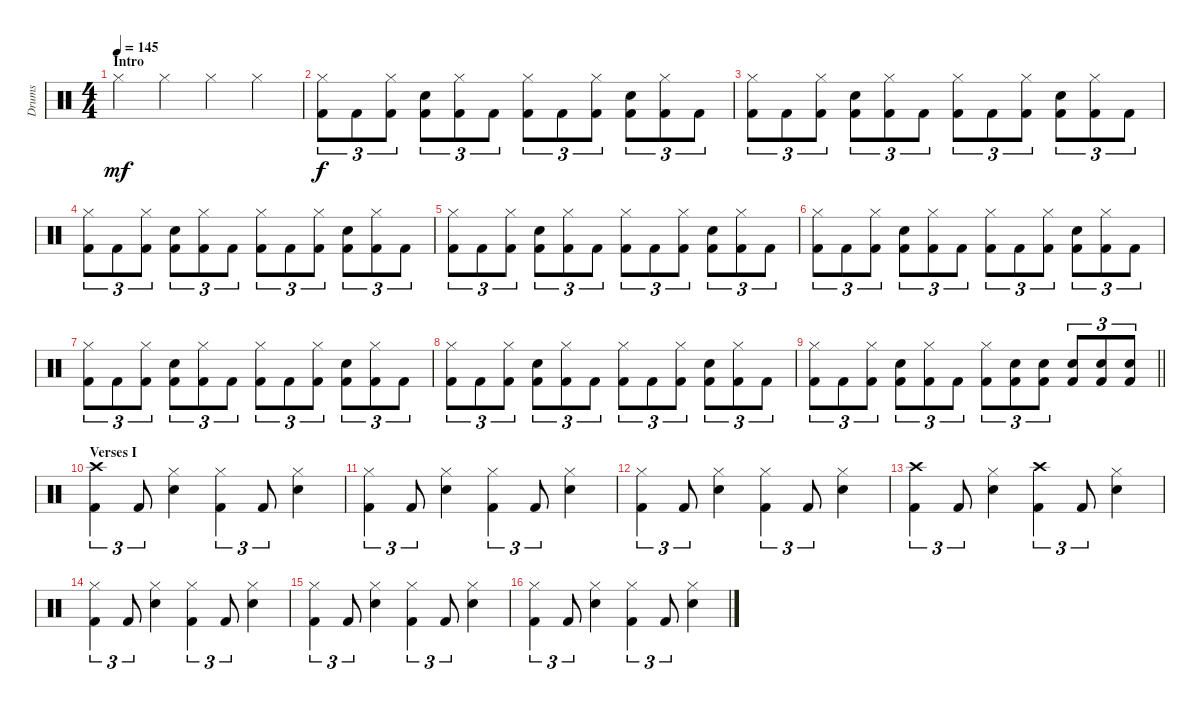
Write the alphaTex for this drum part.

\track ("Drums" "Drums") {instrument percussion}
\staff {score}
\articulation defaults
\ts (4 4)
\section ("" "Intro")
\tempo 145
\clef neutral
\ks c "Hi-Hat (closed)".4{dy mf} "Hi-Hat (closed)".4 "Hi-Hat (closed)".4 "Hi-Hat (closed)".4
|
("Hi-Hat (closed)" "Kick (hit) 2").8{tu (3 2) dy f} "Kick (hit) 2".8{tu (3 2)} ("Hi-Hat (closed)" "Kick (hit) 2").8{tu (3 2)} ("Kick (hit) 2" "Snare (hit) 2").8{tu (3 2)} ("Hi-Hat (closed)" "Kick (hit) 2").8{tu (3 2)} "Kick (hit) 2".8{tu (3 2)} ("Hi-Hat (closed)" "Kick (hit) 2").8{tu (3 2)} "Kick (hit) 2".8{tu (3 2)} ("Hi-Hat (closed)" "Kick (hit) 2").8{tu (3 2)} ("Kick (hit) 2" "Snare (hit) 2").8{tu (3 2)} ("Hi-Hat (closed)" "Kick (hit) 2").8{tu (3 2)} "Kick (hit) 2".8{tu (3 2)} |
("Hi-Hat (closed)" "Kick (hit) 2").8{tu (3 2)} "Kick (hit) 2".8{tu (3 2)} ("Hi-Hat (closed)" "Kick (hit) 2").8{tu (3 2)} ("Kick (hit) 2" "Snare (hit) 2").8{tu (3 2)} ("Hi-Hat (closed)" "Kick (hit) 2").8{tu (3 2)} "Kick (hit) 2".8{tu (3 2)} ("Hi-Hat (closed)" "Kick (hit) 2").8{tu (3 2)} "Kick (hit) 2".8{tu (3 2)} ("Hi-Hat (closed)" "Kick (hit) 2").8{tu (3 2)} ("Kick (hit) 2" "Snare (hit) 2").8{tu (3 2)} ("Hi-Hat (closed)" "Kick (hit) 2").8{tu (3 2)} "Kick (hit) 2".8{tu (3 2)} |
("Hi-Hat (closed)" "Kick (hit) 2").8{tu (3 2)} "Kick (hit) 2".8{tu (3 2)} ("Hi-Hat (closed)" "Kick (hit) 2").8{tu (3 2)} ("Kick (hit) 2" "Snare (hit) 2").8{tu (3 2)} ("Hi-Hat (closed)" "Kick (hit) 2").8{tu (3 2)} "Kick (hit) 2".8{tu (3 2)} ("Hi-Hat (closed)" "Kick (hit) 2").8{tu (3 2)} "Kick (hit) 2".8{tu (3 2)} ("Hi-Hat (closed)" "Kick (hit) 2").8{tu (3 2)} ("Kick (hit) 2" "Snare (hit) 2").8{tu (3 2)} ("Hi-Hat (closed)" "Kick (hit) 2").8{tu (3 2)} "Kick (hit) 2".8{tu (3 2)} |
("Hi-Hat (closed)" "Kick (hit) 2").8{tu (3 2)} "Kick (hit) 2".8{tu (3 2)} ("Hi-Hat (closed)" "Kick (hit) 2").8{tu (3 2)} ("Kick (hit) 2" "Snare (hit) 2").8{tu (3 2)} ("Hi-Hat (closed)" "Kick (hit) 2").8{tu (3 2)} "Kick (hit) 2".8{tu (3 2)} ("Hi-Hat (closed)" "Kick (hit) 2").8{tu (3 2)} "Kick (hit) 2".8{tu (3 2)} ("Hi-Hat (closed)" "Kick (hit) 2").8{tu (3 2)} ("Kick (hit) 2" "Snare (hit) 2").8{tu (3 2)} ("Hi-Hat (closed)" "Kick (hit) 2").8{tu (3 2)} "Kick (hit) 2".8{tu (3 2)} |
("Hi-Hat (closed)" "Kick (hit) 2").8{tu (3 2)} "Kick (hit) 2".8{tu (3 2)} ("Hi-Hat (closed)" "Kick (hit) 2").8{tu (3 2)} ("Kick (hit) 2" "Snare (hit) 2").8{tu (3 2)} ("Hi-Hat (closed)" "Kick (hit) 2").8{tu (3 2)} "Kick (hit) 2".8{tu (3 2)} ("Hi-Hat (closed)" "Kick (hit) 2").8{tu (3 2)} "Kick (hit) 2".8{tu (3 2)} ("Hi-Hat (closed)" "Kick (hit) 2").8{tu (3 2)} ("Kick (hit) 2" "Snare (hit) 2").8{tu (3 2)} ("Hi-Hat (closed)" "Kick (hit) 2").8{tu (3 2)} "Kick (hit) 2".8{tu (3 2)} |
("Hi-Hat (closed)" "Kick (hit) 2").8{tu (3 2)} "Kick (hit) 2".8{tu (3 2)} ("Hi-Hat (closed)" "Kick (hit) 2").8{tu (3 2)} ("Kick (hit) 2" "Snare (hit) 2").8{tu (3 2)} ("Hi-Hat (closed)" "Kick (hit) 2").8{tu (3 2)} "Kick (hit) 2".8{tu (3 2)} ("Hi-Hat (closed)" "Kick (hit) 2").8{tu (3 2)} "Kick (hit) 2".8{tu (3 2)} ("Hi-Hat (closed)" "Kick (hit) 2").8{tu (3 2)} ("Kick (hit) 2" "Snare (hit) 2").8{tu (3 2)} ("Hi-Hat (closed)" "Kick (hit) 2").8{tu (3 2)} "Kick (hit) 2".8{tu (3 2)} |
("Hi-Hat (closed)" "Kick (hit) 2").8{tu (3 2)} "Kick (hit) 2".8{tu (3 2)} ("Hi-Hat (closed)" "Kick (hit) 2").8{tu (3 2)} ("Kick (hit) 2" "Snare (hit) 2").8{tu (3 2)} ("Hi-Hat (closed)" "Kick (hit) 2").8{tu (3 2)} "Kick (hit) 2".8{tu (3 2)} ("Hi-Hat (closed)" "Kick (hit) 2").8{tu (3 2)} "Kick (hit) 2".8{tu (3 2)} ("Hi-Hat (closed)" "Kick (hit) 2").8{tu (3 2)} ("Kick (hit) 2" "Snare (hit) 2").8{tu (3 2)} ("Hi-Hat (closed)" "Kick (hit) 2").8{tu (3 2)} "Kick (hit) 2".8{tu (3 2)} |
\barLineRight lightlight
("Hi-Hat (closed)" "Kick (hit) 2").8{tu (3 2)} "Kick (hit) 2".8{tu (3 2)} ("Hi-Hat (closed)" "Kick (hit) 2").8{tu (3 2)} ("Kick (hit) 2" "Snare (hit) 2").8{tu (3 2)} ("Hi-Hat (closed)" "Kick (hit) 2").8{tu (3 2)} "Kick (hit) 2".8{tu (3 2)} ("Hi-Hat (closed)" "Kick (hit) 2").8{tu (3 2)} ("Kick (hit) 2" "Snare (hit) 2").8{tu (3 2)} ("Kick (hit) 2" "Snare (hit) 2").8{tu (3 2)} ("Kick (hit) 2" "Snare (hit) 2").8{tu (3 2)} ("Kick (hit) 2" "Snare (hit) 2").8{tu (3 2)} ("Kick (hit) 2" "Snare (hit) 2").8{tu (3 2)} |
\section ("" "Verses I")
("Crash high (hit)" "Kick (hit) 2").4{tu (3 2)} "Kick (hit) 2".8{tu (3 2)} ("Hi-Hat (closed)" "Snare (hit) 2").4 ("Hi-Hat (closed)" "Kick (hit) 2").4{tu (3 2)} "Kick (hit) 2".8{tu (3 2)} ("Hi-Hat (closed)" "Snare (hit) 2").4 |
("Hi-Hat (closed)" "Kick (hit) 2").4{tu (3 2)} "Kick (hit) 2".8{tu (3 2)} ("Hi-Hat (closed)" "Snare (hit) 2").4 ("Hi-Hat (closed)" "Kick (hit) 2").4{tu (3 2)} "Kick (hit) 2".8{tu (3 2)} ("Hi-Hat (closed)" "Snare (hit) 2").4 |
("Hi-Hat (closed)" "Kick (hit) 2").4{tu (3 2)} "Kick (hit) 2".8{tu (3 2)} ("Hi-Hat (closed)" "Snare (hit) 2").4 ("Hi-Hat (closed)" "Kick (hit) 2").4{tu (3 2)} "Kick (hit) 2".8{tu (3 2)} ("Hi-Hat (closed)" "Snare (hit) 2").4 |
("Crash high (hit)" "Kick (hit) 2").4{tu (3 2)} "Kick (hit) 2".8{tu (3 2)} ("Hi-Hat (closed)" "Snare (hit) 2").4 ("Crash high (hit)" "Kick (hit) 2").4{tu (3 2)} "Kick (hit) 2".8{tu (3 2)} ("Hi-Hat (closed)" "Snare (hit) 2").4 |
("Hi-Hat (closed)" "Kick (hit) 2").4{tu (3 2)} "Kick (hit) 2".8{tu (3 2)} ("Hi-Hat (closed)" "Snare (hit) 2").4 ("Hi-Hat (closed)" "Kick (hit) 2").4{tu (3 2)} "Kick (hit) 2".8{tu (3 2)} ("Hi-Hat (closed)" "Snare (hit) 2").4 |
("Hi-Hat (closed)" "Kick (hit) 2").4{tu (3 2)} "Kick (hit) 2".8{tu (3 2)} ("Hi-Hat (closed)" "Snare (hit) 2").4 ("Hi-Hat (closed)" "Kick (hit) 2").4{tu (3 2)} "Kick (hit) 2".8{tu (3 2)} ("Hi-Hat (closed)" "Snare (hit) 2").4 |
("Hi-Hat (closed)" "Kick (hit) 2").4{tu (3 2)} "Kick (hit) 2".8{tu (3 2)} ("Hi-Hat (closed)" "Snare (hit) 2").4 ("Hi-Hat (closed)" "Kick (hit) 2").4{tu (3 2)} "Kick (hit) 2".8{tu (3 2)} ("Hi-Hat (closed)" "Snare (hit) 2").4
